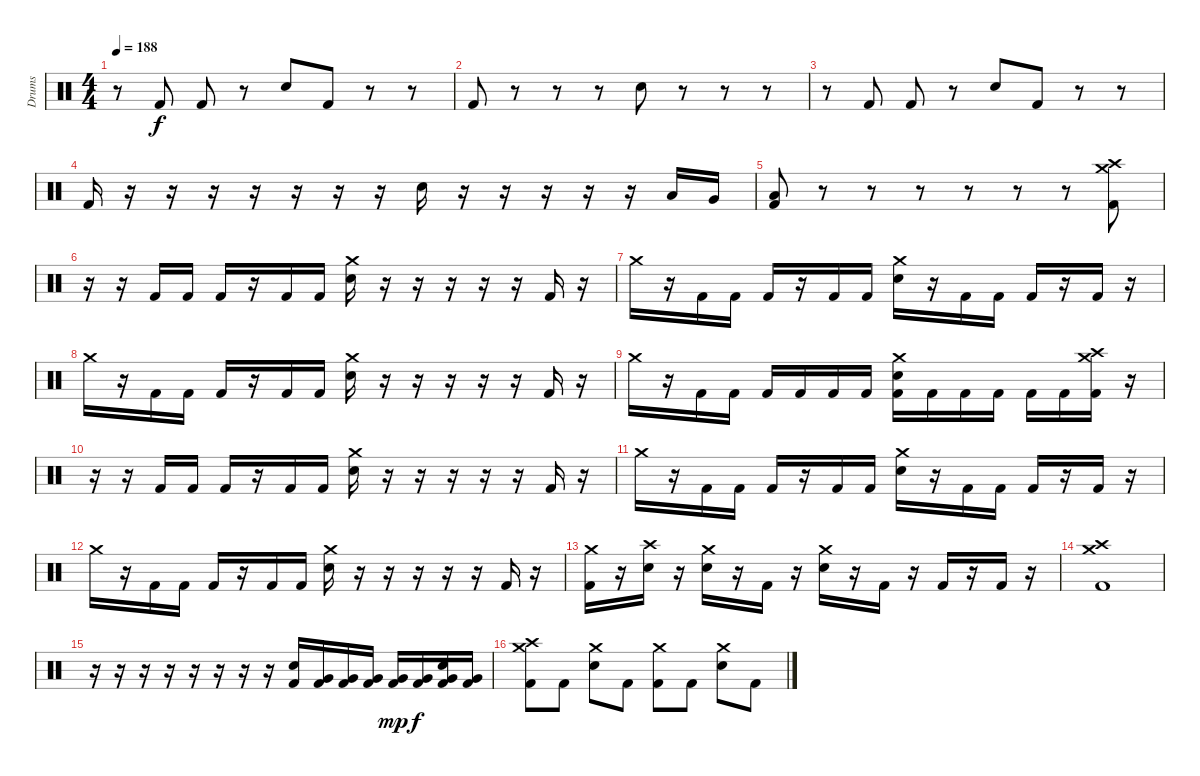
\track ("Drums" "Drums") {instrument percussion}
\staff {score}
\articulation defaults
\ts (4 4)
\tempo 188
\clef neutral
\ks c
r.8{dy f} "Kick (hit) 2".8 "Kick (hit) 2".8 r.8 "Snare (hit) 2".8 "Kick (hit) 2".8 r.8 r.8 |
"Kick (hit) 2".8 r.8 r.8 r.8 "Snare (hit) 2".8 r.8 r.8 r.8 |
r.8 "Kick (hit) 2".8 "Kick (hit) 2".8 r.8 "Snare (hit) 2".8 "Kick (hit) 2".8 r.8 r.8 |
"Kick (hit) 2".16 r.16 r.16 r.16 r.16 r.16 r.16 r.16 "Snare (hit) 2".16 r.16 r.16 r.16 r.16 r.16 "Low Tom (hit)".16 "Very Low Tom (hit)".16 |
("Low Floor Tom (hit)" "Kick (hit) 2").8 r.8 r.8 r.8 r.8 r.8 r.8 ("Crash medium (hit)" "Crash high (hit)" "Kick (hit) 2").8 |
r.16 r.16 "Kick (hit) 2".16 "Kick (hit) 2".16 "Kick (hit) 2".16 r.16 "Kick (hit) 2".16 "Kick (hit) 2".16 ("Crash medium (hit)" "Snare (hit) 2").16 r.16 r.16 r.16 r.16 r.16 "Kick (hit) 2".16 r.16 |
"Crash medium (hit)".16 r.16 "Kick (hit) 2".16 "Kick (hit) 2".16 "Kick (hit) 2".16 r.16 "Kick (hit) 2".16 "Kick (hit) 2".16 ("Crash medium (hit)" "Snare (hit) 2").16 r.16 "Kick (hit) 2".16 "Kick (hit) 2".16 "Kick (hit) 2".16 r.16 "Kick (hit) 2".16 r.16 |
"Crash medium (hit)".16 r.16 "Kick (hit) 2".16 "Kick (hit) 2".16 "Kick (hit) 2".16 r.16 "Kick (hit) 2".16 "Kick (hit) 2".16 ("Crash medium (hit)" "Snare (hit) 2").16 r.16 r.16 r.16 r.16 r.16 "Kick (hit) 2".16 r.16 |
"Crash medium (hit)".16 r.16 "Kick (hit) 2".16 "Kick (hit) 2".16 "Kick (hit) 2".16 "Kick (hit) 2".16 "Kick (hit) 2".16 "Kick (hit) 2".16 ("Crash medium (hit)" "Snare (hit) 2" "Kick (hit) 2").16 "Kick (hit) 2".16 "Kick (hit) 2".16 "Kick (hit) 2".16 "Kick (hit) 2".16 "Kick (hit) 2".16 ("Crash medium (hit)" "Crash high (hit)" "Kick (hit) 2").16 r.16 |
r.16 r.16 "Kick (hit) 2".16 "Kick (hit) 2".16 "Kick (hit) 2".16 r.16 "Kick (hit) 2".16 "Kick (hit) 2".16 ("Crash medium (hit)" "Snare (hit) 2").16 r.16 r.16 r.16 r.16 r.16 "Kick (hit) 2".16 r.16 |
"Crash medium (hit)".16 r.16 "Kick (hit) 2".16 "Kick (hit) 2".16 "Kick (hit) 2".16 r.16 "Kick (hit) 2".16 "Kick (hit) 2".16 ("Crash medium (hit)" "Snare (hit) 2").16 r.16 "Kick (hit) 2".16 "Kick (hit) 2".16 "Kick (hit) 2".16 r.16 "Kick (hit) 2".16 r.16 |
"Crash medium (hit)".16 r.16 "Kick (hit) 2".16 "Kick (hit) 2".16 "Kick (hit) 2".16 r.16 "Kick (hit) 2".16 "Kick (hit) 2".16 ("Crash medium (hit)" "Snare (hit) 2").16 r.16 r.16 r.16 r.16 r.16 "Kick (hit) 2".16 r.16 |
("Crash medium (hit)" "Kick (hit) 2").16 r.16 ("Crash high (hit)" "Snare (hit) 2").16 r.16 ("Crash medium (hit)" "Snare (hit) 2").16 r.16 "Kick (hit) 2".16 r.16 ("Crash medium (hit)" "Snare (hit) 2").16 r.16 "Kick (hit) 2".16 r.16 "Kick (hit) 2".16 r.16 "Kick (hit) 2".16 r.16 |
("Crash medium (hit)" "Crash high (hit)" "Kick (hit) 2").1 |
r.16 r.16 r.16 r.16 r.16 r.16 r.16 r.16 ("Snare (hit) 2" "Kick (hit) 2").16 ("Very Low Tom (hit)" "Kick (hit) 2").16 ("Very Low Tom (hit)" "Kick (hit) 2").16 ("Very Low Tom (hit)" "Kick (hit) 2").16 ("Very Low Tom (hit)" "Kick (hit) 2").16{dy mp} ("Very Low Tom (hit)" "Kick (hit) 2").16{dy f} ("Snare (hit) 2" "Very Low Tom (hit)" "Kick (hit) 2").16 ("Very Low Tom (hit)" "Kick (hit) 2").16 |
("Crash medium (hit)" "Crash high (hit)" "Kick (hit) 2").8 "Kick (hit) 2".8 ("Crash medium (hit)" "Snare (hit) 2").8 "Kick (hit) 2".8 ("Crash medium (hit)" "Kick (hit) 2").8 "Kick (hit) 2".8 ("Crash medium (hit)" "Snare (hit) 2").8 "Kick (hit) 2".8
